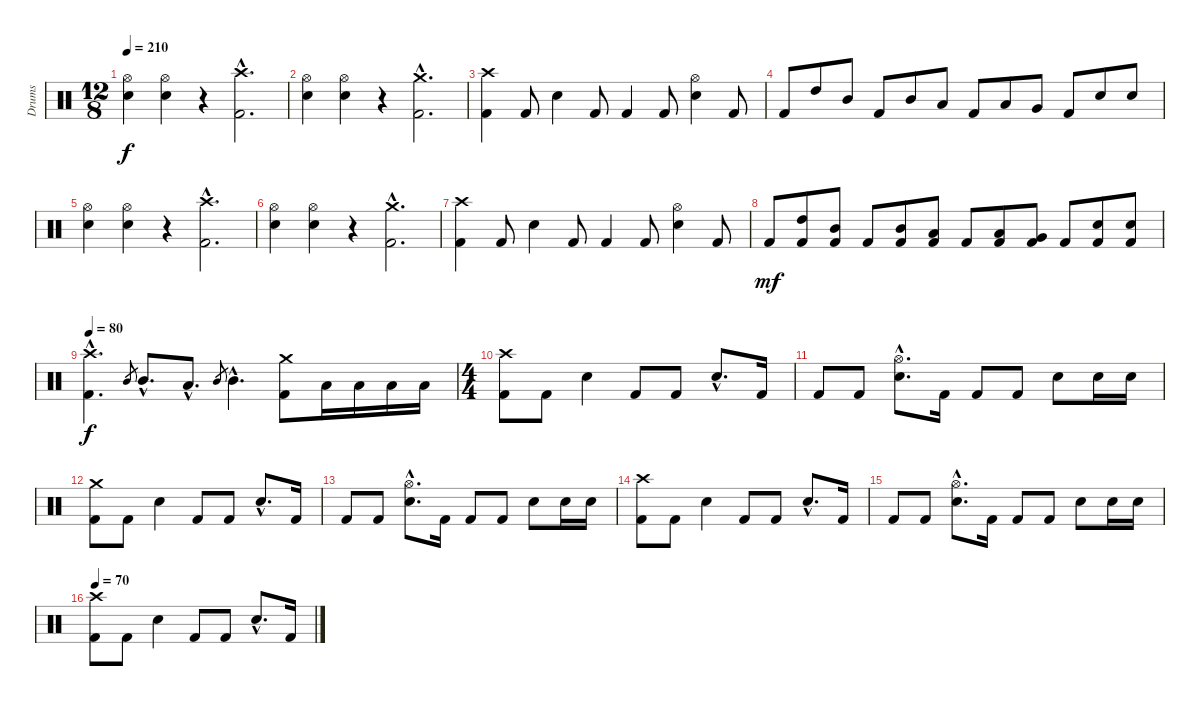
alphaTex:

\track ("Drums" "Drums") {instrument percussion}
\staff {score}
\articulation defaults
\ts (12 8)
\tempo 210
\clef neutral
\ks c
("Snare (hit) 2" "Hi-Hat (open)").4{dy f} ("Snare (hit) 2" "Hi-Hat (open)").4 r.4 ("Kick (hit) 2"{hac} "Crash high (hit)"{hac}).2{d} |
("Snare (hit) 2" "Hi-Hat (open)").4 ("Snare (hit) 2" "Hi-Hat (open)").4 r.4 ("Kick (hit) 2"{hac} "Crash medium (hit)"{hac}).2{d} |
("Kick (hit) 2" "Crash high (hit)").4 "Kick (hit) 2".8 "Snare (hit) 2".4 "Kick (hit) 2".8 "Kick (hit) 2".4 "Kick (hit) 2".8 ("Snare (hit) 2" "Hi-Hat (open)").4 "Kick (hit) 2".8 |
"Kick (hit) 2".8 "High Tom (hit)".8 "Mid Tom (hit)".8 "Kick (hit) 2".8 "Mid Tom (hit)".8 "Low Tom (hit)".8 "Kick (hit) 2".8 "Low Tom (hit)".8 "Very Low Tom (hit)".8 "Kick (hit) 2".8 "Snare (hit) 2".8 "Snare (hit) 2".8 |
("Snare (hit) 2" "Hi-Hat (open)").4 ("Snare (hit) 2" "Hi-Hat (open)").4 r.4 ("Kick (hit) 2"{hac} "Crash high (hit)"{hac}).2{d} |
("Snare (hit) 2" "Hi-Hat (open)").4 ("Snare (hit) 2" "Hi-Hat (open)").4 r.4 ("Kick (hit) 2"{hac} "Crash medium (hit)"{hac}).2{d} |
("Kick (hit) 2" "Crash high (hit)").4 "Kick (hit) 2".8 "Snare (hit) 2".4 "Kick (hit) 2".8 "Kick (hit) 2".4 "Kick (hit) 2".8 ("Snare (hit) 2" "Hi-Hat (open)").4 "Kick (hit) 2".8 |
"Kick (hit) 2".8{dy mf} ("Kick (hit) 2" "High Tom (hit)").8 ("Kick (hit) 2" "Mid Tom (hit)").8 "Kick (hit) 2".8 ("Kick (hit) 2" "Mid Tom (hit)").8 ("Kick (hit) 2" "Low Tom (hit)").8 "Kick (hit) 2".8 ("Kick (hit) 2" "Low Tom (hit)").8 ("Kick (hit) 2" "Very Low Tom (hit)").8 "Kick (hit) 2".8 ("Kick (hit) 2" "Snare (hit) 2").8 ("Kick (hit) 2" "Snare (hit) 2").8 |
\tempo 80
("Kick (hit) 2"{hac} "Crash high (hit)"{hac}).4{d dy f} "Mid Tom (hit)".8{gr} "Mid Tom (hit)"{hac}.8{d} "Low Tom (hit)"{hac}.8{d} "Mid Tom (hit)".8{gr} "Mid Tom (hit)"{hac}.4{d} ("Kick (hit) 2" "Crash medium (hit)").8 "Low Tom (hit)".16 "Low Tom (hit)".16 "Low Tom (hit)".16 "Low Tom (hit)".16 |
\ts (4 4)
("Kick (hit) 2" "Crash high (hit)").8 "Kick (hit) 2".8 "Snare (hit) 2".4 "Kick (hit) 2".8 "Kick (hit) 2".8 "Snare (hit) 2"{hac}.8{d} "Kick (hit) 2".16 |
"Kick (hit) 2".8 "Kick (hit) 2".8 ("Snare (hit) 2"{hac} "Hi-Hat (open)"{hac}).8{d} "Kick (hit) 2".16 "Kick (hit) 2".8 "Kick (hit) 2".8 "Snare (hit) 2".8 "Snare (hit) 2".16 "Snare (hit) 2".16 |
("Kick (hit) 2" "Crash medium (hit)").8 "Kick (hit) 2".8 "Snare (hit) 2".4 "Kick (hit) 2".8 "Kick (hit) 2".8 "Snare (hit) 2"{hac}.8{d} "Kick (hit) 2".16 |
"Kick (hit) 2".8 "Kick (hit) 2".8 ("Snare (hit) 2"{hac} "Hi-Hat (open)"{hac}).8{d} "Kick (hit) 2".16 "Kick (hit) 2".8 "Kick (hit) 2".8 "Snare (hit) 2".8 "Snare (hit) 2".16 "Snare (hit) 2".16 |
("Kick (hit) 2" "Crash high (hit)").8 "Kick (hit) 2".8 "Snare (hit) 2".4 "Kick (hit) 2".8 "Kick (hit) 2".8 "Snare (hit) 2"{hac}.8{d} "Kick (hit) 2".16 |
"Kick (hit) 2".8 "Kick (hit) 2".8 ("Snare (hit) 2"{hac} "Hi-Hat (open)"{hac}).8{d} "Kick (hit) 2".16 "Kick (hit) 2".8 "Kick (hit) 2".8 "Snare (hit) 2".8 "Snare (hit) 2".16 "Snare (hit) 2".16 |
\tempo 70
("Kick (hit) 2" "Crash high (hit)").8 "Kick (hit) 2".8 "Snare (hit) 2".4 "Kick (hit) 2".8 "Kick (hit) 2".8 "Snare (hit) 2"{hac}.8{d} "Kick (hit) 2".16
